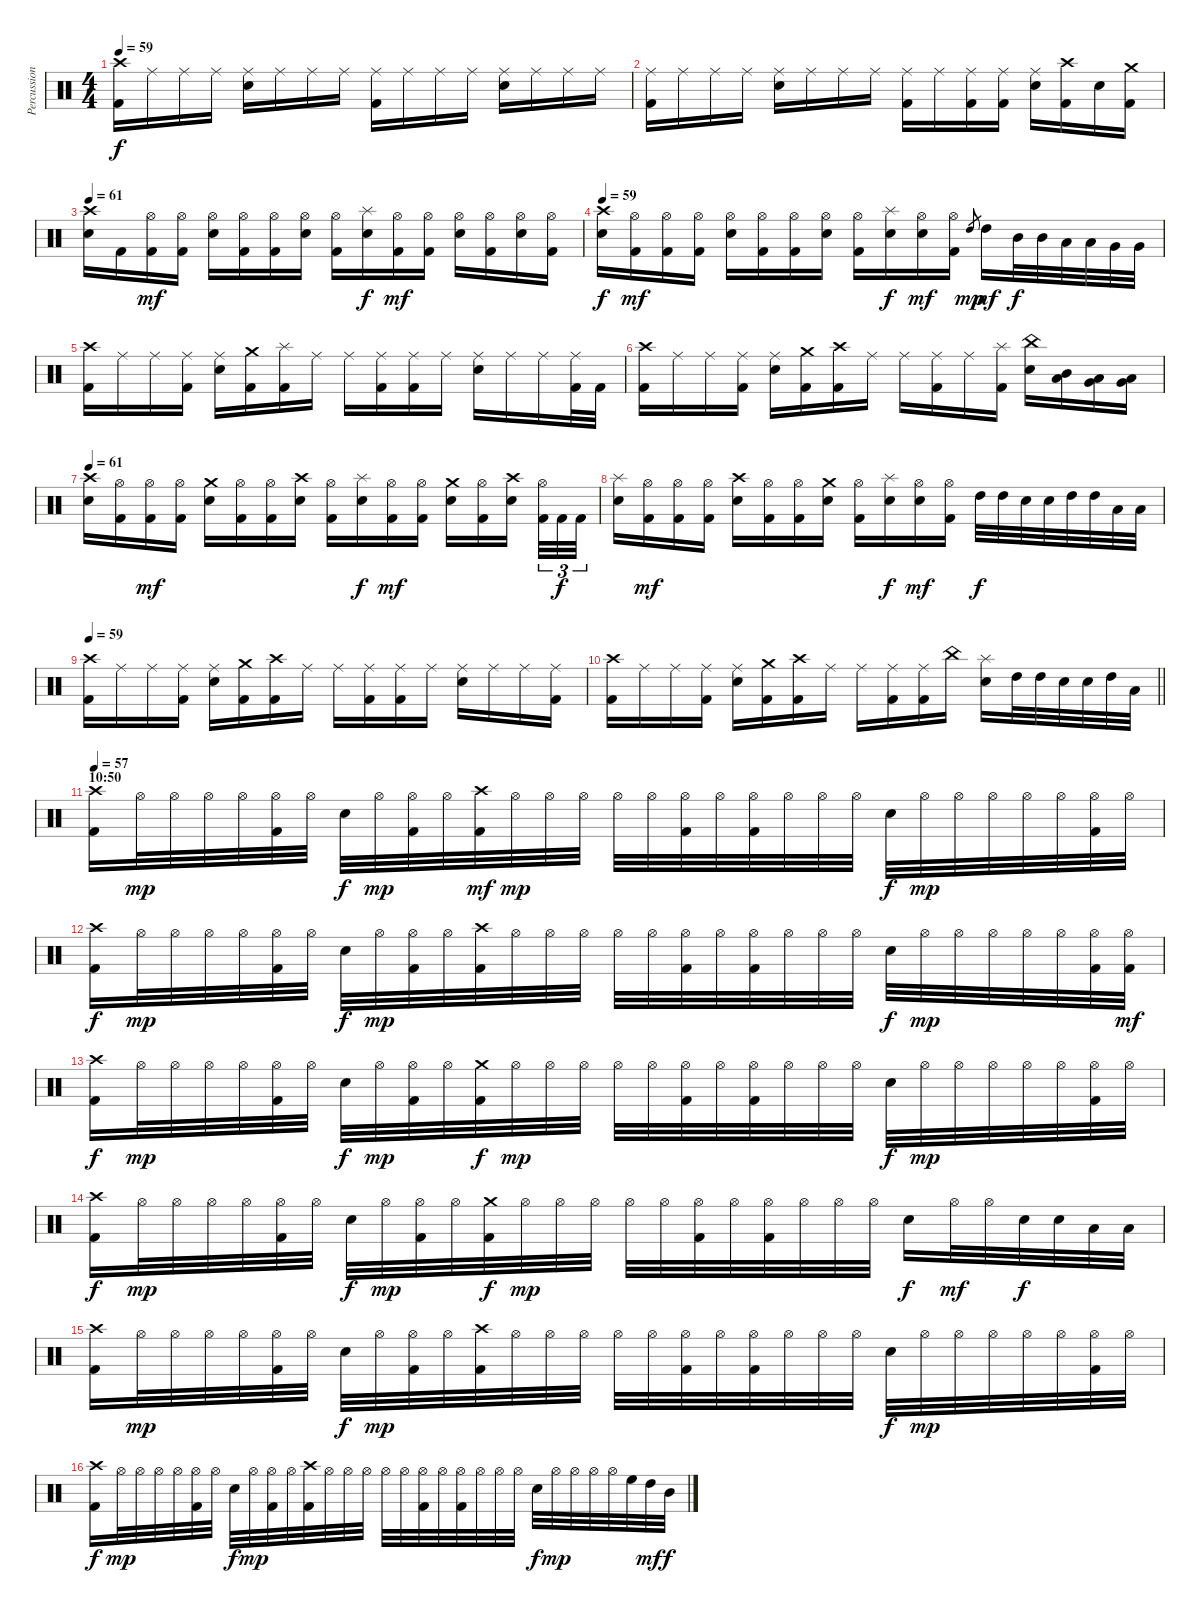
\track ("Percussions" "Percussion") {instrument percussion}
\staff {score}
\articulation defaults
\ts (4 4)
\tempo 59
\clef neutral
\ks c
("Crash high (hit)" "Kick (hit) 2").16{dy f} "Ride (middle)".16 "Ride (middle)".16 "Ride (middle)".16 ("Ride (middle)" "Snare (hit) 2").16 "Ride (middle)".16 "Ride (middle)".16 "Ride (middle)".16 ("Ride (middle)" "Kick (hit) 2").16 "Ride (middle)".16 "Ride (middle)".16 "Ride (middle)".16 ("Ride (middle)" "Snare (hit) 2").16 "Ride (middle)".16 "Ride (middle)".16 "Ride (middle)".16 |
("Ride (middle)" "Kick (hit) 2").16 "Ride (middle)".16 "Ride (middle)".16 "Ride (middle)".16 ("Ride (middle)" "Snare (hit) 2").16 "Ride (middle)".16 "Ride (middle)".16 "Ride (middle)".16 ("Ride (middle)" "Kick (hit) 2").16 "Ride (middle)".16 ("Ride (middle)" "Kick (hit) 2").16 ("Ride (middle)" "Kick (hit) 2").16 ("Ride (middle)" "Snare (hit) 2").16 ("Crash high (hit)" "Kick (hit) 2").16 "Snare (hit) 2".16 ("Crash medium (hit)" "Kick (hit) 2").16 |
\tempo 61
("Crash high (hit)" "Snare (hit) 2").16 "Kick (hit) 2".16 ("Hi-Hat (open)" "Kick (hit) 2").16{dy mf} ("Hi-Hat (open)" "Kick (hit) 2").16 ("Hi-Hat (open)" "Snare (hit) 2").16 ("Hi-Hat (open)" "Kick (hit) 2").16 ("Hi-Hat (open)" "Kick (hit) 2").16 ("Hi-Hat (open)" "Snare (hit) 2").16 ("Hi-Hat (open)" "Kick (hit) 2").16 ("Splash (hit)" "Snare (hit) 2").16{dy f} ("Hi-Hat (open)" "Kick (hit) 2").16{dy mf} ("Hi-Hat (open)" "Kick (hit) 2").16 ("Hi-Hat (open)" "Snare (hit) 2").16 ("Hi-Hat (open)" "Kick (hit) 2").16 ("Hi-Hat (open)" "Snare (hit) 2").16 ("Hi-Hat (open)" "Kick (hit) 2").16 |
\tempo 59
("Crash high (hit)" "Snare (hit) 2").16{dy f} ("Hi-Hat (open)" "Kick (hit) 2").16{dy mf} ("Hi-Hat (open)" "Kick (hit) 2").16 ("Hi-Hat (open)" "Kick (hit) 2").16 ("Hi-Hat (open)" "Snare (hit) 2").16 ("Hi-Hat (open)" "Kick (hit) 2").16 ("Hi-Hat (open)" "Kick (hit) 2").16 ("Hi-Hat (open)" "Snare (hit) 2").16 ("Hi-Hat (open)" "Kick (hit) 2").16 ("Splash (hit)" "Snare (hit) 2").16{dy f} ("Hi-Hat (open)" "Snare (hit) 2").16{dy mf} ("Hi-Hat (open)" "Kick (hit) 2").16 "High Tom (hit)".8{gr dy mp} "High Tom (hit)".16{dy mf} "Mid Tom (hit)".32{dy f} "Mid Tom (hit)".32 "Low Tom (hit)".32 "Low Tom (hit)".32 "Very Low Tom (hit)".32 "Very Low Tom (hit)".32 |
("Crash high (hit)" "Kick (hit) 2").16 "Ride (middle)".16 "Ride (middle)".16 ("Ride (middle)" "Kick (hit) 2").16 ("Ride (middle)" "Snare (hit) 2").16 ("Crash medium (hit)" "Kick (hit) 2").16 ("Splash (hit)" "Kick (hit) 2").16 "Ride (middle)".16 "Ride (middle)".16 ("Ride (middle)" "Kick (hit) 2").16 ("Ride (middle)" "Kick (hit) 2").16 "Ride (middle)".16 ("Ride (middle)" "Snare (hit) 2").16 "Ride (middle)".16 "Ride (middle)".16 ("Ride (middle)" "Kick (hit) 2").32 "Kick (hit) 2".32 |
("Crash high (hit)" "Kick (hit) 2").16 "Ride (middle)".16 "Ride (middle)".16 ("Ride (middle)" "Kick (hit) 2").16 ("Ride (middle)" "Snare (hit) 2").16 ("Crash medium (hit)" "Kick (hit) 2").16 ("Crash high (hit)" "Kick (hit) 2").16 "Ride (middle)".16 "Ride (middle)".16 ("Ride (middle)" "Kick (hit) 2").16 "Ride (middle)".16 ("Splash (hit)" "Kick (hit) 2").16 ("China (hit)" "Snare (hit) 2").16 ("Mid Tom (hit)" "Low Tom (hit)").16 ("Low Tom (hit)" "Very Low Tom (hit)").16 ("Very Low Tom (hit)" "Low Floor Tom (hit)").16 |
\tempo 61
("Crash high (hit)" "Snare (hit) 2").16 ("Hi-Hat (open)" "Kick (hit) 2").16 ("Hi-Hat (open)" "Kick (hit) 2").16{dy mf} ("Hi-Hat (open)" "Kick (hit) 2").16 ("Crash medium (hit)" "Snare (hit) 2").16 ("Hi-Hat (open)" "Kick (hit) 2").16 ("Hi-Hat (open)" "Kick (hit) 2").16 ("Crash high (hit)" "Snare (hit) 2").16 ("Hi-Hat (open)" "Kick (hit) 2").16 ("Splash (hit)" "Snare (hit) 2").16{dy f} ("Hi-Hat (open)" "Kick (hit) 2").16{dy mf} ("Hi-Hat (open)" "Kick (hit) 2").16 ("Crash medium (hit)" "Snare (hit) 2").16 ("Hi-Hat (open)" "Kick (hit) 2").16 ("Crash high (hit)" "Snare (hit) 2").16{beam splitsecondary} ("Hi-Hat (open)" "Kick (hit) 2").32{tu (3 2)} "Kick (hit) 2".32{tu (3 2) dy f} "Kick (hit) 2".32{tu (3 2)} |
("Splash (hit)" "Snare (hit) 2").16 ("Hi-Hat (open)" "Kick (hit) 2").16{dy mf} ("Hi-Hat (open)" "Kick (hit) 2").16 ("Hi-Hat (open)" "Kick (hit) 2").16 ("Crash high (hit)" "Snare (hit) 2").16 ("Hi-Hat (open)" "Kick (hit) 2").16 ("Hi-Hat (open)" "Kick (hit) 2").16 ("Crash medium (hit)" "Snare (hit) 2").16 ("Hi-Hat (open)" "Kick (hit) 2").16 ("Splash (hit)" "Snare (hit) 2").16{dy f} ("Hi-Hat (open)" "Snare (hit) 2").16{dy mf} ("Hi-Hat (open)" "Kick (hit) 2").16 "High Tom (hit)".32{dy f} "High Tom (hit)".32 "Snare (hit) 2".32 "Snare (hit) 2".32 "High Tom (hit)".32 "High Tom (hit)".32 "Low Tom (hit)".32 "Low Tom (hit)".32 |
\tempo 59
("Crash high (hit)" "Kick (hit) 2").16 "Ride (middle)".16 "Ride (middle)".16 ("Ride (middle)" "Kick (hit) 2").16 ("Ride (middle)" "Snare (hit) 2").16 ("Crash medium (hit)" "Kick (hit) 2").16 ("Crash high (hit)" "Kick (hit) 2").16 "Ride (middle)".16 "Ride (middle)".16 ("Ride (middle)" "Kick (hit) 2").16 ("Ride (middle)" "Kick (hit) 2").16 "Ride (middle)".16 ("Ride (middle)" "Snare (hit) 2").16 "Ride (middle)".16 "Ride (middle)".16 ("Ride (middle)" "Kick (hit) 2").16 |
\barLineRight lightlight
("Crash high (hit)" "Kick (hit) 2").16 "Ride (middle)".16 "Ride (middle)".16 ("Ride (middle)" "Kick (hit) 2").16 ("Ride (middle)" "Snare (hit) 2").16 ("Crash medium (hit)" "Kick (hit) 2").16 ("Crash high (hit)" "Kick (hit) 2").16 "Ride (middle)".16 "Ride (middle)".16 ("Ride (middle)" "Kick (hit) 2").16 ("Ride (middle)" "Kick (hit) 2").16 "China (hit)".16 ("Splash (hit)" "Snare (hit) 2").16 "High Tom (hit)".32 "High Tom (hit)".32 "Snare (hit) 2".32 "Snare (hit) 2".32 "High Tom (hit)".32 "Low Tom (hit)".32 |
\section ("" "10:50")
\tempo 57
("Crash high (hit)" "Kick (hit) 2").16 "Hi-Hat (open)".32{dy mp} "Hi-Hat (open)".32 "Hi-Hat (open)".32 "Hi-Hat (open)".32 ("Hi-Hat (open)" "Kick (hit) 2").32 "Hi-Hat (open)".32 "Snare (hit) 2".32{dy f} "Hi-Hat (open)".32{dy mp} ("Hi-Hat (open)" "Kick (hit) 2").32 "Hi-Hat (open)".32 ("Crash high (hit)" "Kick (hit) 2").32{dy mf} "Hi-Hat (open)".32{dy mp} "Hi-Hat (open)".32 "Hi-Hat (open)".32 "Hi-Hat (open)".32 "Hi-Hat (open)".32 ("Hi-Hat (open)" "Kick (hit) 2").32 "Hi-Hat (open)".32 ("Hi-Hat (open)" "Kick (hit) 2").32 "Hi-Hat (open)".32 "Hi-Hat (open)".32 "Hi-Hat (open)".32 "Snare (hit) 2".32{dy f} "Hi-Hat (open)".32{dy mp} "Hi-Hat (open)".32 "Hi-Hat (open)".32 "Hi-Hat (open)".32 "Hi-Hat (open)".32 ("Hi-Hat (open)" "Kick (hit) 2").32 "Hi-Hat (open)".32 |
("Crash high (hit)" "Kick (hit) 2").16{dy f} "Hi-Hat (open)".32{dy mp} "Hi-Hat (open)".32 "Hi-Hat (open)".32 "Hi-Hat (open)".32 ("Hi-Hat (open)" "Kick (hit) 2").32 "Hi-Hat (open)".32 "Snare (hit) 2".32{dy f} "Hi-Hat (open)".32{dy mp} ("Hi-Hat (open)" "Kick (hit) 2").32 "Hi-Hat (open)".32 ("Crash high (hit)" "Kick (hit) 2").32 "Hi-Hat (open)".32 "Hi-Hat (open)".32 "Hi-Hat (open)".32 "Hi-Hat (open)".32 "Hi-Hat (open)".32 ("Hi-Hat (open)" "Kick (hit) 2").32 "Hi-Hat (open)".32 ("Hi-Hat (open)" "Kick (hit) 2").32 "Hi-Hat (open)".32 "Hi-Hat (open)".32 "Hi-Hat (open)".32 "Snare (hit) 2".32{dy f} "Hi-Hat (open)".32{dy mp} "Hi-Hat (open)".32 "Hi-Hat (open)".32 "Hi-Hat (open)".32 "Hi-Hat (open)".32 ("Hi-Hat (open)" "Kick (hit) 2").32 ("Hi-Hat (open)" "Kick (hit) 2").32{dy mf} |
("Crash high (hit)" "Kick (hit) 2").16{dy f} "Hi-Hat (open)".32{dy mp} "Hi-Hat (open)".32 "Hi-Hat (open)".32 "Hi-Hat (open)".32 ("Hi-Hat (open)" "Kick (hit) 2").32 "Hi-Hat (open)".32 "Snare (hit) 2".32{dy f} "Hi-Hat (open)".32{dy mp} ("Hi-Hat (open)" "Kick (hit) 2").32 "Hi-Hat (open)".32 ("Crash medium (hit)" "Kick (hit) 2").32{dy f} "Hi-Hat (open)".32{dy mp} "Hi-Hat (open)".32 "Hi-Hat (open)".32 "Hi-Hat (open)".32 "Hi-Hat (open)".32 ("Hi-Hat (open)" "Kick (hit) 2").32 "Hi-Hat (open)".32 ("Hi-Hat (open)" "Kick (hit) 2").32 "Hi-Hat (open)".32 "Hi-Hat (open)".32 "Hi-Hat (open)".32 "Snare (hit) 2".32{dy f} "Hi-Hat (open)".32{dy mp} "Hi-Hat (open)".32 "Hi-Hat (open)".32 "Hi-Hat (open)".32 "Hi-Hat (open)".32 ("Hi-Hat (open)" "Kick (hit) 2").32 "Hi-Hat (open)".32 |
("Crash high (hit)" "Kick (hit) 2").16{dy f} "Hi-Hat (open)".32{dy mp} "Hi-Hat (open)".32 "Hi-Hat (open)".32 "Hi-Hat (open)".32 ("Hi-Hat (open)" "Kick (hit) 2").32 "Hi-Hat (open)".32 "Snare (hit) 2".32{dy f} "Hi-Hat (open)".32{dy mp} ("Hi-Hat (open)" "Kick (hit) 2").32 "Hi-Hat (open)".32 ("Crash medium (hit)" "Kick (hit) 2").32{dy f} "Hi-Hat (open)".32{dy mp} "Hi-Hat (open)".32 "Hi-Hat (open)".32 "Hi-Hat (open)".32 "Hi-Hat (open)".32 ("Hi-Hat (open)" "Kick (hit) 2").32 "Hi-Hat (open)".32 ("Hi-Hat (open)" "Kick (hit) 2").32 "Hi-Hat (open)".32 "Hi-Hat (open)".32 "Hi-Hat (open)".32 "Snare (hit) 2".16{dy f} "Hi-Hat (open)".32{dy mf} "Hi-Hat (open)".32 "Snare (hit) 2".32{dy f} "Snare (hit) 2".32 "Low Tom (hit)".32 "Low Tom (hit)".32 |
("Crash high (hit)" "Kick (hit) 2").16 "Hi-Hat (open)".32{dy mp} "Hi-Hat (open)".32 "Hi-Hat (open)".32 "Hi-Hat (open)".32 ("Hi-Hat (open)" "Kick (hit) 2").32 "Hi-Hat (open)".32 "Snare (hit) 2".32{dy f} "Hi-Hat (open)".32{dy mp} ("Hi-Hat (open)" "Kick (hit) 2").32 "Hi-Hat (open)".32 ("Crash high (hit)" "Kick (hit) 2").32 "Hi-Hat (open)".32 "Hi-Hat (open)".32 "Hi-Hat (open)".32 "Hi-Hat (open)".32 "Hi-Hat (open)".32 ("Hi-Hat (open)" "Kick (hit) 2").32 "Hi-Hat (open)".32 ("Hi-Hat (open)" "Kick (hit) 2").32 "Hi-Hat (open)".32 "Hi-Hat (open)".32 "Hi-Hat (open)".32 "Snare (hit) 2".32{dy f} "Hi-Hat (open)".32{dy mp} "Hi-Hat (open)".32 "Hi-Hat (open)".32 "Hi-Hat (open)".32 "Hi-Hat (open)".32 ("Hi-Hat (open)" "Kick (hit) 2").32 "Hi-Hat (open)".32 |
("Crash high (hit)" "Kick (hit) 2").16{dy f} "Hi-Hat (open)".32{dy mp} "Hi-Hat (open)".32 "Hi-Hat (open)".32 "Hi-Hat (open)".32 ("Hi-Hat (open)" "Kick (hit) 2").32 "Hi-Hat (open)".32 "Snare (hit) 2".32{dy f} "Hi-Hat (open)".32{dy mp} ("Hi-Hat (open)" "Kick (hit) 2").32 "Hi-Hat (open)".32 ("Crash high (hit)" "Kick (hit) 2").32 "Hi-Hat (open)".32 "Hi-Hat (open)".32 "Hi-Hat (open)".32 "Hi-Hat (open)".32 "Hi-Hat (open)".32 ("Hi-Hat (open)" "Kick (hit) 2").32 "Hi-Hat (open)".32 ("Hi-Hat (open)" "Kick (hit) 2").32 "Hi-Hat (open)".32 "Hi-Hat (open)".32 "Hi-Hat (open)".32 "Snare (hit) 2".32{dy f} "Hi-Hat (open)".32{dy mp} "Hi-Hat (open)".32 "Hi-Hat (open)".32 "Hi-Hat (open)".32 "High Floor Tom (hit)".32 "High Tom (hit)".32{dy mf} "Mid Tom (hit)".32{dy f}
